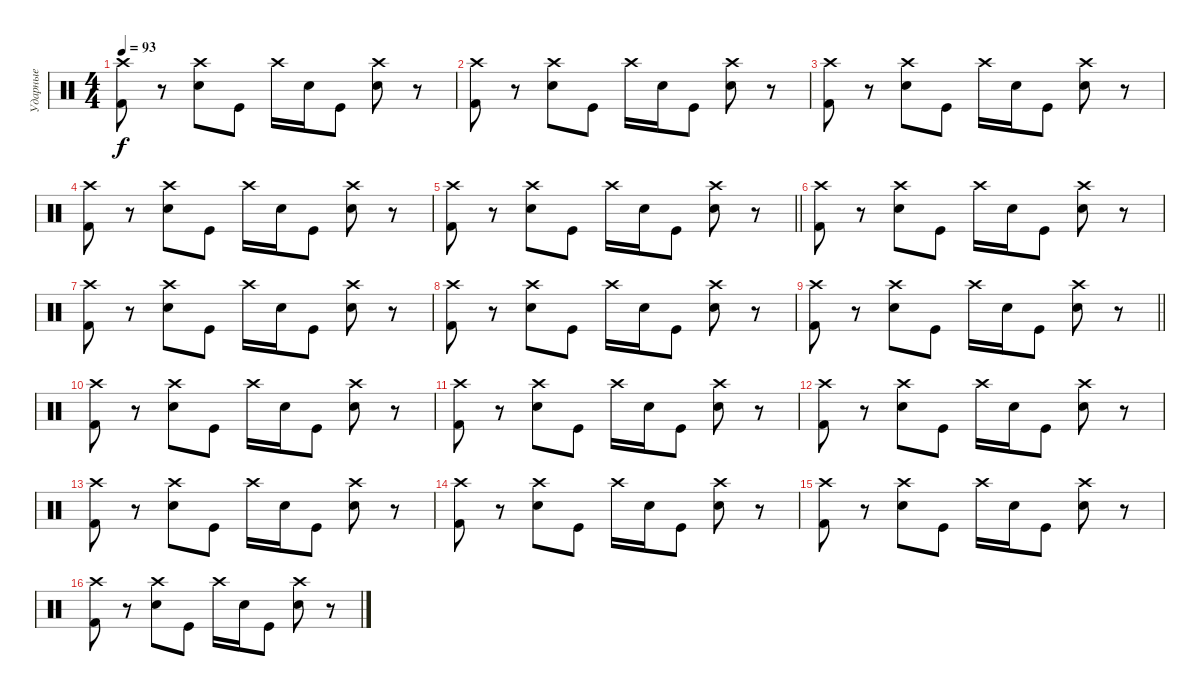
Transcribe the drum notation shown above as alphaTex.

\track ("Ударные" "Ударные") {instrument percussion}
\staff {score}
\articulation defaults
\ts (4 4)
\tempo 93
\clef neutral
\ks c
("Crash high (hit)" "Kick (hit) 2").8{dy f} r.8 ("Crash high (hit)" "Electric Snare (hit)").8 "Kick (hit)".8 "Crash high (hit)".16 "Electric Snare (hit)".16 "Kick (hit)".8 ("Crash high (hit)" "Electric Snare (hit)").8 r.8 |
("Crash high (hit)" "Kick (hit) 2").8 r.8 ("Crash high (hit)" "Electric Snare (hit)").8 "Kick (hit)".8 "Crash high (hit)".16 "Electric Snare (hit)".16 "Kick (hit)".8 ("Crash high (hit)" "Electric Snare (hit)").8 r.8 |
("Crash high (hit)" "Kick (hit) 2").8 r.8 ("Crash high (hit)" "Electric Snare (hit)").8 "Kick (hit)".8 "Crash high (hit)".16 "Electric Snare (hit)".16 "Kick (hit)".8 ("Crash high (hit)" "Electric Snare (hit)").8 r.8 |
("Crash high (hit)" "Kick (hit) 2").8 r.8 ("Crash high (hit)" "Electric Snare (hit)").8 "Kick (hit)".8 "Crash high (hit)".16 "Electric Snare (hit)".16 "Kick (hit)".8 ("Crash high (hit)" "Electric Snare (hit)").8 r.8 |
\barLineRight lightlight
("Crash high (hit)" "Kick (hit) 2").8 r.8 ("Crash high (hit)" "Electric Snare (hit)").8 "Kick (hit)".8 "Crash high (hit)".16 "Electric Snare (hit)".16 "Kick (hit)".8 ("Crash high (hit)" "Electric Snare (hit)").8 r.8 |
("Crash high (hit)" "Kick (hit) 2").8 r.8 ("Crash high (hit)" "Electric Snare (hit)").8 "Kick (hit)".8 "Crash high (hit)".16 "Electric Snare (hit)".16 "Kick (hit)".8 ("Crash high (hit)" "Electric Snare (hit)").8 r.8 |
("Crash high (hit)" "Kick (hit) 2").8 r.8 ("Crash high (hit)" "Electric Snare (hit)").8 "Kick (hit)".8 "Crash high (hit)".16 "Electric Snare (hit)".16 "Kick (hit)".8 ("Crash high (hit)" "Electric Snare (hit)").8 r.8 |
("Crash high (hit)" "Kick (hit) 2").8 r.8 ("Crash high (hit)" "Electric Snare (hit)").8 "Kick (hit)".8 "Crash high (hit)".16 "Electric Snare (hit)".16 "Kick (hit)".8 ("Crash high (hit)" "Electric Snare (hit)").8 r.8 |
\barLineRight lightlight
("Crash high (hit)" "Kick (hit) 2").8 r.8 ("Crash high (hit)" "Electric Snare (hit)").8 "Kick (hit)".8 "Crash high (hit)".16 "Electric Snare (hit)".16 "Kick (hit)".8 ("Crash high (hit)" "Electric Snare (hit)").8 r.8 |
("Crash high (hit)" "Kick (hit) 2").8 r.8 ("Crash high (hit)" "Electric Snare (hit)").8 "Kick (hit)".8 "Crash high (hit)".16 "Electric Snare (hit)".16 "Kick (hit)".8 ("Crash high (hit)" "Electric Snare (hit)").8 r.8 |
("Crash high (hit)" "Kick (hit) 2").8 r.8 ("Crash high (hit)" "Electric Snare (hit)").8 "Kick (hit)".8 "Crash high (hit)".16 "Electric Snare (hit)".16 "Kick (hit)".8 ("Crash high (hit)" "Electric Snare (hit)").8 r.8 |
("Crash high (hit)" "Kick (hit) 2").8 r.8 ("Crash high (hit)" "Electric Snare (hit)").8 "Kick (hit)".8 "Crash high (hit)".16 "Electric Snare (hit)".16 "Kick (hit)".8 ("Crash high (hit)" "Electric Snare (hit)").8 r.8 |
("Crash high (hit)" "Kick (hit) 2").8 r.8 ("Crash high (hit)" "Electric Snare (hit)").8 "Kick (hit)".8 "Crash high (hit)".16 "Electric Snare (hit)".16 "Kick (hit)".8 ("Crash high (hit)" "Electric Snare (hit)").8 r.8 |
("Crash high (hit)" "Kick (hit) 2").8 r.8 ("Crash high (hit)" "Electric Snare (hit)").8 "Kick (hit)".8 "Crash high (hit)".16 "Electric Snare (hit)".16 "Kick (hit)".8 ("Crash high (hit)" "Electric Snare (hit)").8 r.8 |
("Crash high (hit)" "Kick (hit) 2").8 r.8 ("Crash high (hit)" "Electric Snare (hit)").8 "Kick (hit)".8 "Crash high (hit)".16 "Electric Snare (hit)".16 "Kick (hit)".8 ("Crash high (hit)" "Electric Snare (hit)").8 r.8 |
("Crash high (hit)" "Kick (hit) 2").8 r.8 ("Crash high (hit)" "Electric Snare (hit)").8 "Kick (hit)".8 "Crash high (hit)".16 "Electric Snare (hit)".16 "Kick (hit)".8 ("Crash high (hit)" "Electric Snare (hit)").8 r.8
